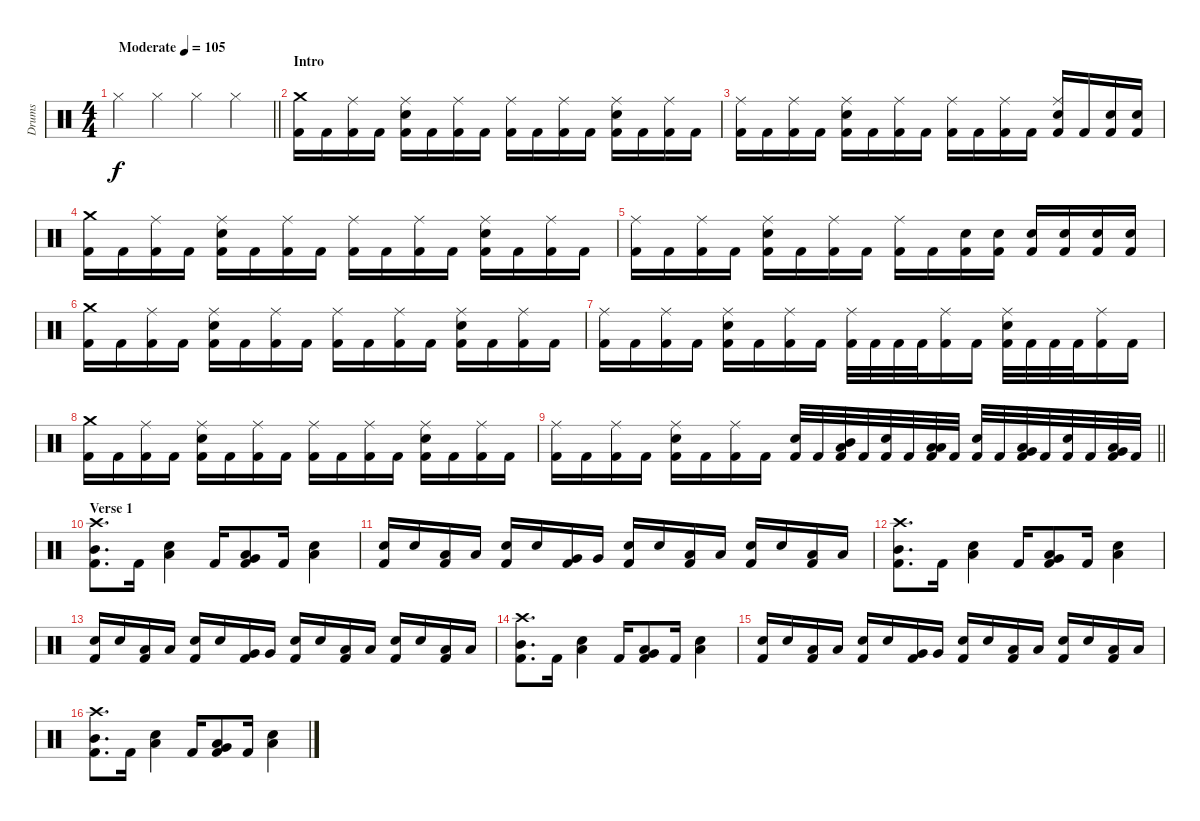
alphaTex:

\track ("Drums" "Drums") {instrument percussion}
\staff {score}
\articulation defaults
\ts (4 4)
\tempo (105 "Moderate")
\clef neutral
\barLineRight lightlight
\ks c "Hi-Hat (closed)".4{dy f} "Hi-Hat (closed)".4 "Hi-Hat (closed)".4 "Hi-Hat (closed)".4
|
\section ("" "Intro")
("Kick (hit) 2" "Crash medium (hit)").16 "Kick (hit) 2".16 ("Kick (hit) 2" "Ride (middle)").16 "Kick (hit) 2".16 ("Kick (hit) 2" "Snare (hit) 2" "Ride (middle)").16 "Kick (hit) 2".16 ("Kick (hit) 2" "Ride (middle)").16 "Kick (hit) 2".16 ("Kick (hit) 2" "Ride (middle)").16 "Kick (hit) 2".16 ("Kick (hit) 2" "Ride (middle)").16 "Kick (hit) 2".16 ("Kick (hit) 2" "Snare (hit) 2" "Ride (middle)").16 "Kick (hit) 2".16 ("Kick (hit) 2" "Ride (middle)").16 "Kick (hit) 2".16 |
("Kick (hit) 2" "Ride (middle)").16 "Kick (hit) 2".16 ("Kick (hit) 2" "Ride (middle)").16 "Kick (hit) 2".16 ("Kick (hit) 2" "Snare (hit) 2" "Ride (middle)").16 "Kick (hit) 2".16 ("Kick (hit) 2" "Ride (middle)").16 "Kick (hit) 2".16 ("Kick (hit) 2" "Ride (middle)").16 "Kick (hit) 2".16 ("Kick (hit) 2" "Ride (middle)").16 "Kick (hit) 2".16 ("Kick (hit) 2" "Snare (hit) 2" "Ride (middle)").16 "Kick (hit) 2".16 ("Kick (hit) 2" "Snare (hit) 2").16 ("Kick (hit) 2" "Snare (hit) 2").16 |
("Kick (hit) 2" "Crash medium (hit)").16 "Kick (hit) 2".16 ("Kick (hit) 2" "Ride (middle)").16 "Kick (hit) 2".16 ("Kick (hit) 2" "Snare (hit) 2" "Ride (middle)").16 "Kick (hit) 2".16 ("Kick (hit) 2" "Ride (middle)").16 "Kick (hit) 2".16 ("Kick (hit) 2" "Ride (middle)").16 "Kick (hit) 2".16 ("Kick (hit) 2" "Ride (middle)").16 "Kick (hit) 2".16 ("Kick (hit) 2" "Snare (hit) 2" "Ride (middle)").16 "Kick (hit) 2".16 ("Kick (hit) 2" "Ride (middle)").16 "Kick (hit) 2".16 |
("Kick (hit) 2" "Ride (middle)").16 "Kick (hit) 2".16 ("Kick (hit) 2" "Ride (middle)").16 "Kick (hit) 2".16 ("Kick (hit) 2" "Snare (hit) 2" "Ride (middle)").16 "Kick (hit) 2".16 ("Kick (hit) 2" "Ride (middle)").16 "Kick (hit) 2".16 ("Kick (hit) 2" "Ride (middle)").16 "Kick (hit) 2".16 ("Kick (hit) 2" "Snare (hit) 2").16 ("Kick (hit) 2" "Snare (hit) 2").16 ("Kick (hit) 2" "Snare (hit) 2").16 ("Kick (hit) 2" "Snare (hit) 2").16 ("Kick (hit) 2" "Snare (hit) 2").16 ("Kick (hit) 2" "Snare (hit) 2").16 |
("Kick (hit) 2" "Crash medium (hit)").16 "Kick (hit) 2".16 ("Kick (hit) 2" "Ride (middle)").16 "Kick (hit) 2".16 ("Kick (hit) 2" "Snare (hit) 2" "Ride (middle)").16 "Kick (hit) 2".16 ("Kick (hit) 2" "Ride (middle)").16 "Kick (hit) 2".16 ("Kick (hit) 2" "Ride (middle)").16 "Kick (hit) 2".16 ("Kick (hit) 2" "Ride (middle)").16 "Kick (hit) 2".16 ("Kick (hit) 2" "Snare (hit) 2" "Ride (middle)").16 "Kick (hit) 2".16 ("Kick (hit) 2" "Ride (middle)").16 "Kick (hit) 2".16 |
("Kick (hit) 2" "Ride (middle)").16 "Kick (hit) 2".16 ("Kick (hit) 2" "Ride (middle)").16 "Kick (hit) 2".16 ("Kick (hit) 2" "Snare (hit) 2" "Ride (middle)").16 "Kick (hit) 2".16 ("Kick (hit) 2" "Ride (middle)").16 "Kick (hit) 2".16 ("Kick (hit) 2" "Ride (middle)").32 "Kick (hit) 2".32 "Kick (hit) 2".32 "Kick (hit) 2".32 ("Kick (hit) 2" "Ride (middle)").16 "Kick (hit) 2".16 ("Kick (hit) 2" "Snare (hit) 2" "Ride (middle)").32 "Kick (hit) 2".32 "Kick (hit) 2".32 "Kick (hit) 2".32 ("Kick (hit) 2" "Ride (middle)").16 "Kick (hit) 2".16 |
("Kick (hit) 2" "Crash medium (hit)").16 "Kick (hit) 2".16 ("Kick (hit) 2" "Ride (middle)").16 "Kick (hit) 2".16 ("Kick (hit) 2" "Snare (hit) 2" "Ride (middle)").16 "Kick (hit) 2".16 ("Kick (hit) 2" "Ride (middle)").16 "Kick (hit) 2".16 ("Kick (hit) 2" "Ride (middle)").16 "Kick (hit) 2".16 ("Kick (hit) 2" "Ride (middle)").16 "Kick (hit) 2".16 ("Kick (hit) 2" "Snare (hit) 2" "Ride (middle)").16 "Kick (hit) 2".16 ("Kick (hit) 2" "Ride (middle)").16 "Kick (hit) 2".16 |
\barLineRight lightlight
("Kick (hit) 2" "Ride (middle)").16 "Kick (hit) 2".16 ("Kick (hit) 2" "Ride (middle)").16 "Kick (hit) 2".16 ("Kick (hit) 2" "Snare (hit) 2" "Ride (middle)").16 "Kick (hit) 2".16 ("Kick (hit) 2" "Ride (middle)").16 "Kick (hit) 2".16 ("Kick (hit) 2" "Snare (hit) 2").32 "Kick (hit) 2".32 ("Kick (hit) 2" "Mid Tom (hit)" "Low Tom (hit)").32 "Kick (hit) 2".32 ("Kick (hit) 2" "Snare (hit) 2").32 "Kick (hit) 2".32 ("Kick (hit) 2" "Low Tom (hit)" "Low Tom (hit)").32 "Kick (hit) 2".32 ("Kick (hit) 2" "Snare (hit) 2").32 "Kick (hit) 2".32 ("Kick (hit) 2" "Low Tom (hit)" "Very Low Tom (hit)").32 "Kick (hit) 2".32 ("Kick (hit) 2" "Snare (hit) 2").32 "Kick (hit) 2".32 ("Kick (hit) 2" "Very Low Tom (hit)" "Low Floor Tom (hit)").32 "Kick (hit) 2".32 |
\section ("" "Verse 1")
("Kick (hit) 2" "Mid Tom (hit)" "Crash high (hit)").8{d} "Kick (hit) 2".16 ("Snare (hit) 2" "Low Tom (hit)").4 "Kick (hit) 2".16 ("Kick (hit) 2" "Very Low Tom (hit)" "Low Floor Tom (hit)").8 "Kick (hit) 2".16 ("Snare (hit) 2" "Low Tom (hit)").4 |
("Kick (hit) 2" "Snare (hit) 2").16 "Snare (hit) 2".16 ("Kick (hit) 2" "Low Tom (hit)").16 "Low Tom (hit)".16 ("Kick (hit) 2" "Snare (hit) 2").16 "Snare (hit) 2".16 ("Kick (hit) 2" "Very Low Tom (hit)").16 "Very Low Tom (hit)".16 ("Kick (hit) 2" "Snare (hit) 2").16 "Snare (hit) 2".16 ("Kick (hit) 2" "Low Tom (hit)").16 "Low Tom (hit)".16 ("Kick (hit) 2" "Snare (hit) 2").16 "Snare (hit) 2".16 ("Kick (hit) 2" "Low Floor Tom (hit)").16 "Low Floor Tom (hit)".16 |
("Kick (hit) 2" "Mid Tom (hit)" "Crash high (hit)").8{d} "Kick (hit) 2".16 ("Snare (hit) 2" "Low Tom (hit)").4 "Kick (hit) 2".16 ("Kick (hit) 2" "Very Low Tom (hit)" "Low Floor Tom (hit)").8 "Kick (hit) 2".16 ("Snare (hit) 2" "Low Tom (hit)").4 |
("Kick (hit) 2" "Snare (hit) 2").16 "Snare (hit) 2".16 ("Kick (hit) 2" "Low Tom (hit)").16 "Low Tom (hit)".16 ("Kick (hit) 2" "Snare (hit) 2").16 "Snare (hit) 2".16 ("Kick (hit) 2" "Very Low Tom (hit)").16 "Very Low Tom (hit)".16 ("Kick (hit) 2" "Snare (hit) 2").16 "Snare (hit) 2".16 ("Kick (hit) 2" "Low Tom (hit)").16 "Low Tom (hit)".16 ("Kick (hit) 2" "Snare (hit) 2").16 "Snare (hit) 2".16 ("Kick (hit) 2" "Low Floor Tom (hit)").16 "Low Floor Tom (hit)".16 |
("Kick (hit) 2" "Mid Tom (hit)" "Crash high (hit)").8{d} "Kick (hit) 2".16 ("Snare (hit) 2" "Low Tom (hit)").4 "Kick (hit) 2".16 ("Kick (hit) 2" "Very Low Tom (hit)" "Low Floor Tom (hit)").8 "Kick (hit) 2".16 ("Snare (hit) 2" "Low Tom (hit)").4 |
("Kick (hit) 2" "Snare (hit) 2").16 "Snare (hit) 2".16 ("Kick (hit) 2" "Low Tom (hit)").16 "Low Tom (hit)".16 ("Kick (hit) 2" "Snare (hit) 2").16 "Snare (hit) 2".16 ("Kick (hit) 2" "Very Low Tom (hit)").16 "Very Low Tom (hit)".16 ("Kick (hit) 2" "Snare (hit) 2").16 "Snare (hit) 2".16 ("Kick (hit) 2" "Low Tom (hit)").16 "Low Tom (hit)".16 ("Kick (hit) 2" "Snare (hit) 2").16 "Snare (hit) 2".16 ("Kick (hit) 2" "Low Floor Tom (hit)").16 "Low Floor Tom (hit)".16 |
("Kick (hit) 2" "Mid Tom (hit)" "Crash high (hit)").8{d} "Kick (hit) 2".16 ("Snare (hit) 2" "Low Tom (hit)").4 "Kick (hit) 2".16 ("Kick (hit) 2" "Very Low Tom (hit)" "Low Floor Tom (hit)").8 "Kick (hit) 2".16 ("Snare (hit) 2" "Low Tom (hit)").4
